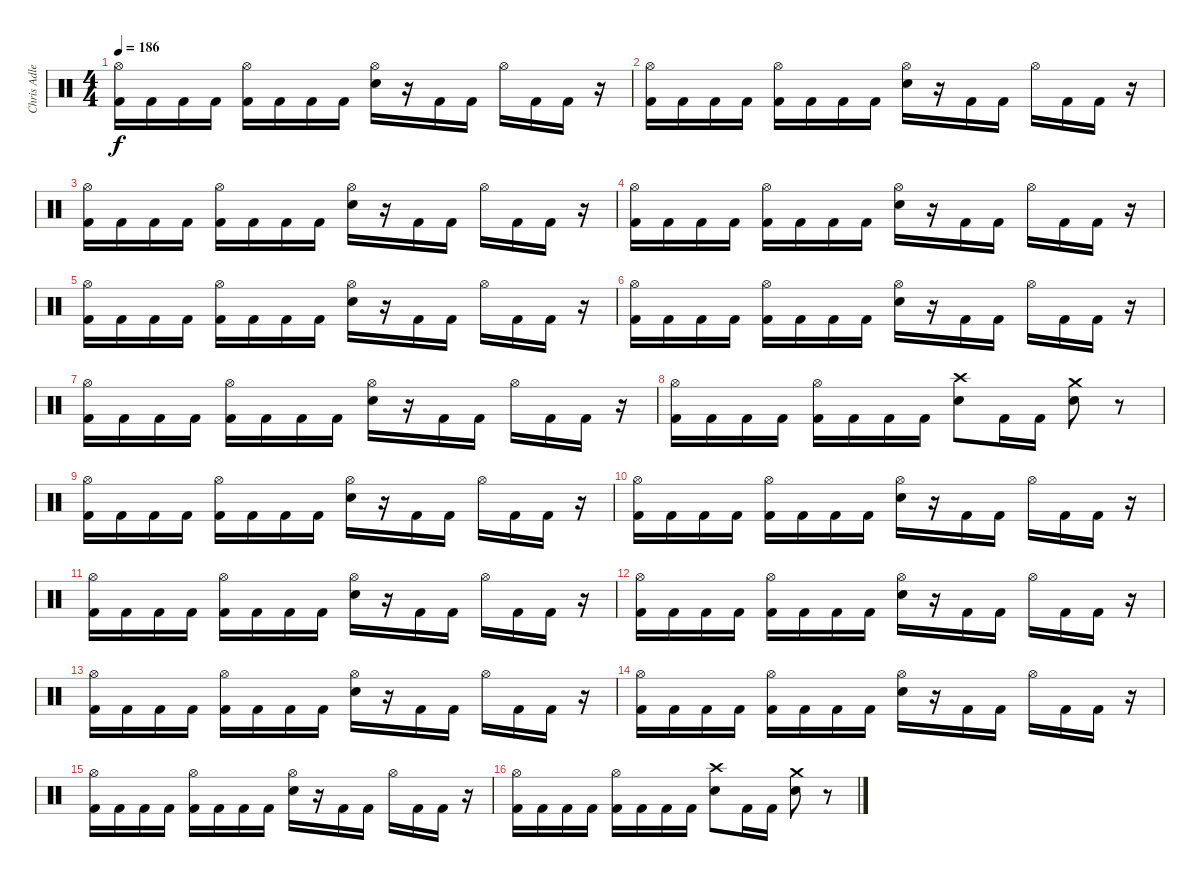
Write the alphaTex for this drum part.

\track ("Chris Adler" "Chris Adle") {instrument percussion}
\staff {score}
\articulation defaults
\ts (4 4)
\tempo 186
\clef neutral
\ks c
("Hi-Hat (open)" "Kick (hit) 2").16{dy f} "Kick (hit) 2".16 "Kick (hit) 2".16 "Kick (hit) 2".16 ("Hi-Hat (open)" "Kick (hit) 2").16 "Kick (hit) 2".16 "Kick (hit) 2".16 "Kick (hit) 2".16 ("Hi-Hat (open)" "Electric Snare (hit)").16 r.16 "Kick (hit) 2".16 "Kick (hit) 2".16 "Hi-Hat (open)".16 "Kick (hit) 2".16 "Kick (hit) 2".16 r.16 |
("Hi-Hat (open)" "Kick (hit) 2").16 "Kick (hit) 2".16 "Kick (hit) 2".16 "Kick (hit) 2".16 ("Hi-Hat (open)" "Kick (hit) 2").16 "Kick (hit) 2".16 "Kick (hit) 2".16 "Kick (hit) 2".16 ("Hi-Hat (open)" "Electric Snare (hit)").16 r.16 "Kick (hit) 2".16 "Kick (hit) 2".16 "Hi-Hat (open)".16 "Kick (hit) 2".16 "Kick (hit) 2".16 r.16 |
("Hi-Hat (open)" "Kick (hit) 2").16 "Kick (hit) 2".16 "Kick (hit) 2".16 "Kick (hit) 2".16 ("Hi-Hat (open)" "Kick (hit) 2").16 "Kick (hit) 2".16 "Kick (hit) 2".16 "Kick (hit) 2".16 ("Hi-Hat (open)" "Electric Snare (hit)").16 r.16 "Kick (hit) 2".16 "Kick (hit) 2".16 "Hi-Hat (open)".16 "Kick (hit) 2".16 "Kick (hit) 2".16 r.16 |
("Hi-Hat (open)" "Kick (hit) 2").16 "Kick (hit) 2".16 "Kick (hit) 2".16 "Kick (hit) 2".16 ("Hi-Hat (open)" "Kick (hit) 2").16 "Kick (hit) 2".16 "Kick (hit) 2".16 "Kick (hit) 2".16 ("Hi-Hat (open)" "Electric Snare (hit)").16 r.16 "Kick (hit) 2".16 "Kick (hit) 2".16 "Hi-Hat (open)".16 "Kick (hit) 2".16 "Kick (hit) 2".16 r.16 |
("Hi-Hat (open)" "Kick (hit) 2").16 "Kick (hit) 2".16 "Kick (hit) 2".16 "Kick (hit) 2".16 ("Hi-Hat (open)" "Kick (hit) 2").16 "Kick (hit) 2".16 "Kick (hit) 2".16 "Kick (hit) 2".16 ("Hi-Hat (open)" "Electric Snare (hit)").16 r.16 "Kick (hit) 2".16 "Kick (hit) 2".16 "Hi-Hat (open)".16 "Kick (hit) 2".16 "Kick (hit) 2".16 r.16 |
("Hi-Hat (open)" "Kick (hit) 2").16 "Kick (hit) 2".16 "Kick (hit) 2".16 "Kick (hit) 2".16 ("Hi-Hat (open)" "Kick (hit) 2").16 "Kick (hit) 2".16 "Kick (hit) 2".16 "Kick (hit) 2".16 ("Hi-Hat (open)" "Electric Snare (hit)").16 r.16 "Kick (hit) 2".16 "Kick (hit) 2".16 "Hi-Hat (open)".16 "Kick (hit) 2".16 "Kick (hit) 2".16 r.16 |
("Hi-Hat (open)" "Kick (hit) 2").16 "Kick (hit) 2".16 "Kick (hit) 2".16 "Kick (hit) 2".16 ("Hi-Hat (open)" "Kick (hit) 2").16 "Kick (hit) 2".16 "Kick (hit) 2".16 "Kick (hit) 2".16 ("Hi-Hat (open)" "Electric Snare (hit)").16 r.16 "Kick (hit) 2".16 "Kick (hit) 2".16 "Hi-Hat (open)".16 "Kick (hit) 2".16 "Kick (hit) 2".16 r.16 |
("Hi-Hat (open)" "Kick (hit) 2").16 "Kick (hit) 2".16 "Kick (hit) 2".16 "Kick (hit) 2".16 ("Hi-Hat (open)" "Kick (hit) 2").16 "Kick (hit) 2".16 "Kick (hit) 2".16 "Kick (hit) 2".16 ("Crash high (hit)" "Electric Snare (hit)").8 "Kick (hit) 2".16 "Kick (hit) 2".16 ("Crash medium (hit)" "Electric Snare (hit)").8 r.8 |
("Hi-Hat (open)" "Kick (hit) 2").16 "Kick (hit) 2".16 "Kick (hit) 2".16 "Kick (hit) 2".16 ("Hi-Hat (open)" "Kick (hit) 2").16 "Kick (hit) 2".16 "Kick (hit) 2".16 "Kick (hit) 2".16 ("Hi-Hat (open)" "Electric Snare (hit)").16 r.16 "Kick (hit) 2".16 "Kick (hit) 2".16 "Hi-Hat (open)".16 "Kick (hit) 2".16 "Kick (hit) 2".16 r.16 |
("Hi-Hat (open)" "Kick (hit) 2").16 "Kick (hit) 2".16 "Kick (hit) 2".16 "Kick (hit) 2".16 ("Hi-Hat (open)" "Kick (hit) 2").16 "Kick (hit) 2".16 "Kick (hit) 2".16 "Kick (hit) 2".16 ("Hi-Hat (open)" "Electric Snare (hit)").16 r.16 "Kick (hit) 2".16 "Kick (hit) 2".16 "Hi-Hat (open)".16 "Kick (hit) 2".16 "Kick (hit) 2".16 r.16 |
("Hi-Hat (open)" "Kick (hit) 2").16 "Kick (hit) 2".16 "Kick (hit) 2".16 "Kick (hit) 2".16 ("Hi-Hat (open)" "Kick (hit) 2").16 "Kick (hit) 2".16 "Kick (hit) 2".16 "Kick (hit) 2".16 ("Hi-Hat (open)" "Electric Snare (hit)").16 r.16 "Kick (hit) 2".16 "Kick (hit) 2".16 "Hi-Hat (open)".16 "Kick (hit) 2".16 "Kick (hit) 2".16 r.16 |
("Hi-Hat (open)" "Kick (hit) 2").16 "Kick (hit) 2".16 "Kick (hit) 2".16 "Kick (hit) 2".16 ("Hi-Hat (open)" "Kick (hit) 2").16 "Kick (hit) 2".16 "Kick (hit) 2".16 "Kick (hit) 2".16 ("Hi-Hat (open)" "Electric Snare (hit)").16 r.16 "Kick (hit) 2".16 "Kick (hit) 2".16 "Hi-Hat (open)".16 "Kick (hit) 2".16 "Kick (hit) 2".16 r.16 |
("Hi-Hat (open)" "Kick (hit) 2").16 "Kick (hit) 2".16 "Kick (hit) 2".16 "Kick (hit) 2".16 ("Hi-Hat (open)" "Kick (hit) 2").16 "Kick (hit) 2".16 "Kick (hit) 2".16 "Kick (hit) 2".16 ("Hi-Hat (open)" "Electric Snare (hit)").16 r.16 "Kick (hit) 2".16 "Kick (hit) 2".16 "Hi-Hat (open)".16 "Kick (hit) 2".16 "Kick (hit) 2".16 r.16 |
("Hi-Hat (open)" "Kick (hit) 2").16 "Kick (hit) 2".16 "Kick (hit) 2".16 "Kick (hit) 2".16 ("Hi-Hat (open)" "Kick (hit) 2").16 "Kick (hit) 2".16 "Kick (hit) 2".16 "Kick (hit) 2".16 ("Hi-Hat (open)" "Electric Snare (hit)").16 r.16 "Kick (hit) 2".16 "Kick (hit) 2".16 "Hi-Hat (open)".16 "Kick (hit) 2".16 "Kick (hit) 2".16 r.16 |
("Hi-Hat (open)" "Kick (hit) 2").16 "Kick (hit) 2".16 "Kick (hit) 2".16 "Kick (hit) 2".16 ("Hi-Hat (open)" "Kick (hit) 2").16 "Kick (hit) 2".16 "Kick (hit) 2".16 "Kick (hit) 2".16 ("Hi-Hat (open)" "Electric Snare (hit)").16 r.16 "Kick (hit) 2".16 "Kick (hit) 2".16 "Hi-Hat (open)".16 "Kick (hit) 2".16 "Kick (hit) 2".16 r.16 |
("Hi-Hat (open)" "Kick (hit) 2").16 "Kick (hit) 2".16 "Kick (hit) 2".16 "Kick (hit) 2".16 ("Hi-Hat (open)" "Kick (hit) 2").16 "Kick (hit) 2".16 "Kick (hit) 2".16 "Kick (hit) 2".16 ("Crash high (hit)" "Electric Snare (hit)").8 "Kick (hit) 2".16 "Kick (hit) 2".16 ("Crash medium (hit)" "Electric Snare (hit)").8 r.8
